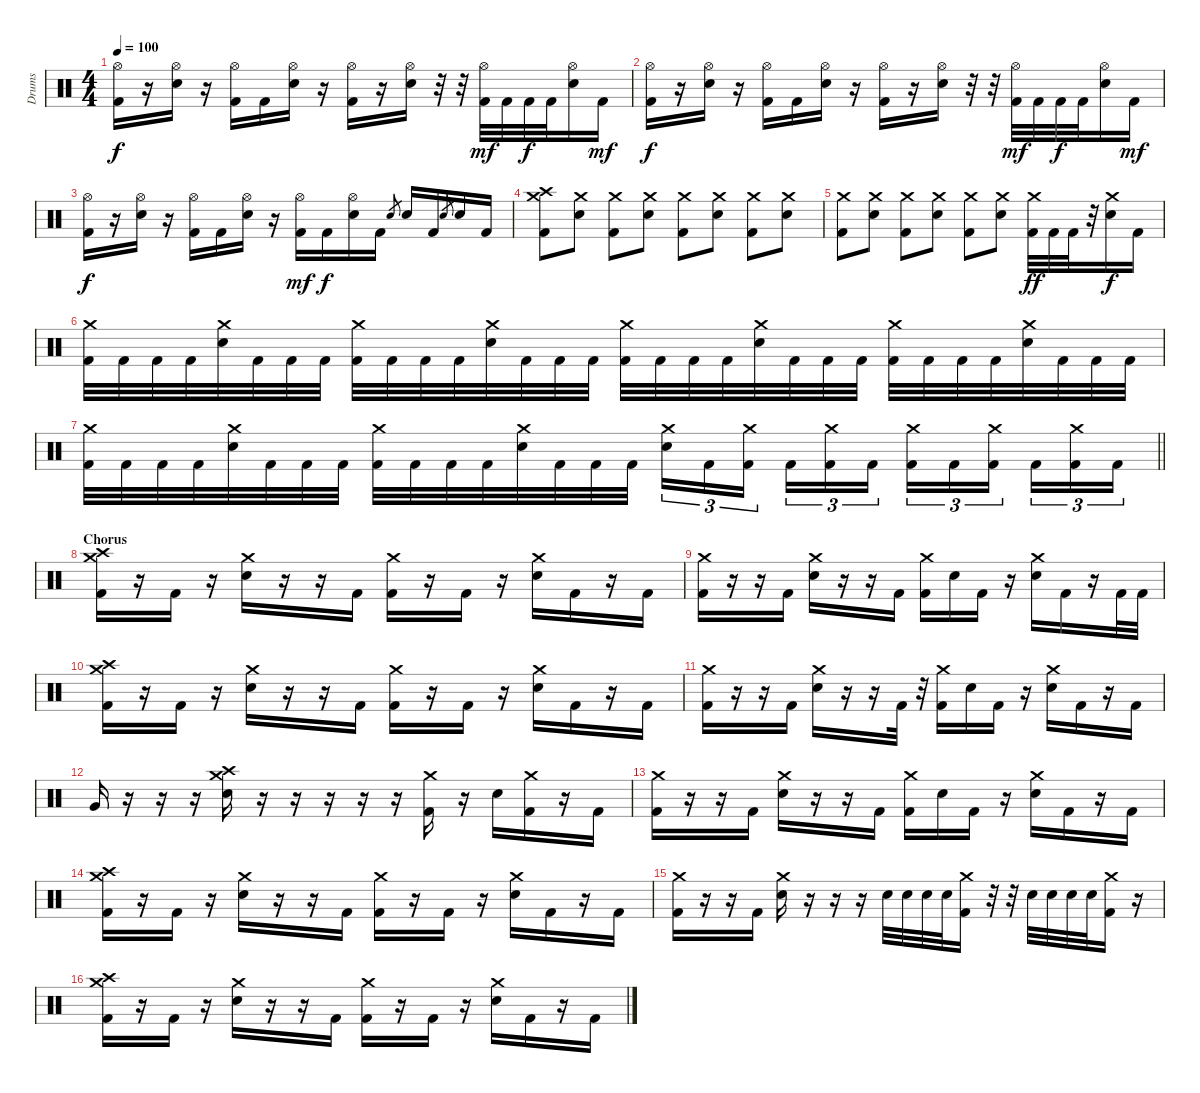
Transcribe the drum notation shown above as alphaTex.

\track ("Drums" "Drums") {instrument percussion}
\staff {score}
\articulation defaults
\ts (4 4)
\tempo 100
\clef neutral
\ks c
("Hi-Hat (open)" "Kick (hit) 2").16{dy f} r.16 ("Hi-Hat (open)" "Electric Snare (hit)").16 r.16 ("Hi-Hat (open)" "Kick (hit) 2").16 "Kick (hit) 2".16 ("Hi-Hat (open)" "Electric Snare (hit)").16 r.16 ("Hi-Hat (open)" "Kick (hit) 2").16 r.16 ("Hi-Hat (open)" "Electric Snare (hit)").16 r.32 r.32 ("Hi-Hat (open)" "Kick (hit) 2").32{dy mf} "Kick (hit) 2".32 "Kick (hit) 2".32{dy f} "Kick (hit) 2".32 ("Hi-Hat (open)" "Electric Snare (hit)").16 "Kick (hit) 2".16{dy mf} |
("Hi-Hat (open)" "Kick (hit) 2").16{dy f} r.16 ("Hi-Hat (open)" "Electric Snare (hit)").16 r.16 ("Hi-Hat (open)" "Kick (hit) 2").16 "Kick (hit) 2".16 ("Hi-Hat (open)" "Electric Snare (hit)").16 r.16 ("Hi-Hat (open)" "Kick (hit) 2").16 r.16 ("Hi-Hat (open)" "Electric Snare (hit)").16 r.32 r.32 ("Hi-Hat (open)" "Kick (hit) 2").32{dy mf} "Kick (hit) 2".32 "Kick (hit) 2".32{dy f} "Kick (hit) 2".32 ("Hi-Hat (open)" "Electric Snare (hit)").16 "Kick (hit) 2".16{dy mf} |
("Hi-Hat (open)" "Kick (hit) 2").16{dy f} r.16 ("Hi-Hat (open)" "Electric Snare (hit)").16 r.16 ("Hi-Hat (open)" "Kick (hit) 2").16 "Kick (hit) 2".16 ("Hi-Hat (open)" "Electric Snare (hit)").16 r.16 ("Hi-Hat (open)" "Kick (hit) 2").16{dy mf} "Kick (hit) 2".16{dy f} ("Hi-Hat (open)" "Electric Snare (hit)").16 "Kick (hit) 2".16 "Electric Snare (hit)".8{gr} "Electric Snare (hit)".16 "Kick (hit) 2".16 "Electric Snare (hit)".8{gr} "Electric Snare (hit)".16 "Kick (hit) 2".16 |
("Crash high (hit)" "Crash medium (hit)" "Kick (hit) 2").8 ("Crash medium (hit)" "Electric Snare (hit)").8 ("Crash medium (hit)" "Kick (hit) 2").8 ("Crash medium (hit)" "Electric Snare (hit)").8 ("Crash medium (hit)" "Kick (hit) 2").8 ("Crash medium (hit)" "Electric Snare (hit)").8 ("Crash medium (hit)" "Kick (hit) 2").8 ("Crash medium (hit)" "Electric Snare (hit)").8 |
("Crash medium (hit)" "Kick (hit) 2").8 ("Crash medium (hit)" "Electric Snare (hit)").8 ("Crash medium (hit)" "Kick (hit) 2").8 ("Crash medium (hit)" "Electric Snare (hit)").8 ("Crash medium (hit)" "Kick (hit) 2").8 ("Crash medium (hit)" "Electric Snare (hit)").8 ("Crash medium (hit)" "Kick (hit) 2").32{dy ff} "Kick (hit) 2".32 "Kick (hit) 2".32 r.32 ("Crash medium (hit)" "Electric Snare (hit)").16{dy f} "Kick (hit) 2".16 |
("Crash medium (hit)" "Kick (hit) 2").32 "Kick (hit) 2".32 "Kick (hit) 2".32 "Kick (hit) 2".32 ("Crash medium (hit)" "Electric Snare (hit)").32 "Kick (hit) 2".32 "Kick (hit) 2".32 "Kick (hit) 2".32 ("Crash medium (hit)" "Kick (hit) 2").32 "Kick (hit) 2".32 "Kick (hit) 2".32 "Kick (hit) 2".32 ("Crash medium (hit)" "Electric Snare (hit)").32 "Kick (hit) 2".32 "Kick (hit) 2".32 "Kick (hit) 2".32 ("Crash medium (hit)" "Kick (hit) 2").32 "Kick (hit) 2".32 "Kick (hit) 2".32 "Kick (hit) 2".32 ("Crash medium (hit)" "Electric Snare (hit)").32 "Kick (hit) 2".32 "Kick (hit) 2".32 "Kick (hit) 2".32 ("Crash medium (hit)" "Kick (hit) 2").32 "Kick (hit) 2".32 "Kick (hit) 2".32 "Kick (hit) 2".32 ("Crash medium (hit)" "Electric Snare (hit)").32 "Kick (hit) 2".32 "Kick (hit) 2".32 "Kick (hit) 2".32 |
\barLineRight lightlight
("Crash medium (hit)" "Kick (hit) 2").32 "Kick (hit) 2".32 "Kick (hit) 2".32 "Kick (hit) 2".32 ("Crash medium (hit)" "Electric Snare (hit)").32 "Kick (hit) 2".32 "Kick (hit) 2".32 "Kick (hit) 2".32 ("Crash medium (hit)" "Kick (hit) 2").32 "Kick (hit) 2".32 "Kick (hit) 2".32 "Kick (hit) 2".32 ("Crash medium (hit)" "Electric Snare (hit)").32 "Kick (hit) 2".32 "Kick (hit) 2".32 "Kick (hit) 2".32 ("Crash medium (hit)" "Electric Snare (hit)").16{tu (3 2)} "Kick (hit) 2".16{tu (3 2)} ("Crash medium (hit)" "Kick (hit) 2").16{tu (3 2) beam splitsecondary} "Kick (hit) 2".16{tu (3 2)} ("Crash medium (hit)" "Kick (hit) 2").16{tu (3 2)} "Kick (hit) 2".16{tu (3 2)} ("Crash medium (hit)" "Kick (hit) 2").16{tu (3 2)} "Kick (hit) 2".16{tu (3 2)} ("Crash medium (hit)" "Kick (hit) 2").16{tu (3 2) beam splitsecondary} "Kick (hit) 2".16{tu (3 2)} ("Crash medium (hit)" "Kick (hit) 2").16{tu (3 2)} "Kick (hit) 2".16{tu (3 2)} |
\section ("" "Chorus")
("Crash high (hit)" "Crash medium (hit)" "Kick (hit) 2").16 r.16 "Kick (hit) 2".16 r.16 ("Crash medium (hit)" "Electric Snare (hit)").16 r.16 r.16 "Kick (hit) 2".16 ("Crash medium (hit)" "Kick (hit) 2").16 r.16 "Kick (hit) 2".16 r.16 ("Crash medium (hit)" "Electric Snare (hit)").16 "Kick (hit) 2".16 r.16 "Kick (hit) 2".16 |
("Crash medium (hit)" "Kick (hit) 2").16 r.16 r.16 "Kick (hit) 2".16 ("Crash medium (hit)" "Electric Snare (hit)").16 r.16 r.16 "Kick (hit) 2".16 ("Crash medium (hit)" "Kick (hit) 2").16 "Electric Snare (hit)".16 "Kick (hit) 2".16 r.16 ("Crash medium (hit)" "Electric Snare (hit)").16 "Kick (hit) 2".16 r.16 "Kick (hit) 2".32 "Kick (hit) 2".32 |
("Crash high (hit)" "Crash medium (hit)" "Kick (hit) 2").16 r.16 "Kick (hit) 2".16 r.16 ("Crash medium (hit)" "Electric Snare (hit)").16 r.16 r.16 "Kick (hit) 2".16 ("Crash medium (hit)" "Kick (hit) 2").16 r.16 "Kick (hit) 2".16 r.16 ("Crash medium (hit)" "Electric Snare (hit)").16 "Kick (hit) 2".16 r.16 "Kick (hit) 2".16 |
("Crash medium (hit)" "Kick (hit) 2").16 r.16 r.16 "Kick (hit) 2".16 ("Crash medium (hit)" "Electric Snare (hit)").16 r.16 r.16 "Kick (hit) 2".32 r.32 ("Crash medium (hit)" "Kick (hit) 2").16 "Electric Snare (hit)".16 "Kick (hit) 2".16 r.16 ("Crash medium (hit)" "Electric Snare (hit)").16 "Kick (hit) 2".16 r.16 "Kick (hit) 2".16 |
"Very Low Tom (hit)".16 r.16 r.16 r.16 ("Crash high (hit)" "Crash medium (hit)" "Electric Snare (hit)").16 r.16 r.16 r.16 r.16 r.16 ("Crash medium (hit)" "Kick (hit) 2").16 r.16 "Electric Snare (hit)".16 ("Crash medium (hit)" "Kick (hit) 2").16 r.16 "Kick (hit) 2".16 |
("Crash medium (hit)" "Kick (hit) 2").16 r.16 r.16 "Kick (hit) 2".16 ("Crash medium (hit)" "Electric Snare (hit)").16 r.16 r.16 "Kick (hit) 2".16 ("Crash medium (hit)" "Kick (hit) 2").16 "Electric Snare (hit)".16 "Kick (hit) 2".16 r.16 ("Crash medium (hit)" "Electric Snare (hit)").16 "Kick (hit) 2".16 r.16 "Kick (hit) 2".16 |
("Crash high (hit)" "Crash medium (hit)" "Kick (hit) 2").16 r.16 "Kick (hit) 2".16 r.16 ("Crash medium (hit)" "Electric Snare (hit)").16 r.16 r.16 "Kick (hit) 2".16 ("Crash medium (hit)" "Kick (hit) 2").16 r.16 "Kick (hit) 2".16 r.16 ("Crash medium (hit)" "Electric Snare (hit)").16 "Kick (hit) 2".16 r.16 "Kick (hit) 2".16 |
("Crash medium (hit)" "Kick (hit) 2").16 r.16 r.16 "Kick (hit) 2".16 ("Crash medium (hit)" "Electric Snare (hit)").16 r.16 r.16 r.16 "Electric Snare (hit)".32 "Electric Snare (hit)".32 "Electric Snare (hit)".32 "Electric Snare (hit)".32 ("Crash medium (hit)" "Kick (hit) 2").16 r.32 r.32 "Electric Snare (hit)".32 "Electric Snare (hit)".32 "Electric Snare (hit)".32 "Electric Snare (hit)".32 ("Crash medium (hit)" "Kick (hit) 2").16 r.16 |
("Crash high (hit)" "Crash medium (hit)" "Kick (hit) 2").16 r.16 "Kick (hit) 2".16 r.16 ("Crash medium (hit)" "Electric Snare (hit)").16 r.16 r.16 "Kick (hit) 2".16 ("Crash medium (hit)" "Kick (hit) 2").16 r.16 "Kick (hit) 2".16 r.16 ("Crash medium (hit)" "Electric Snare (hit)").16 "Kick (hit) 2".16 r.16 "Kick (hit) 2".16
